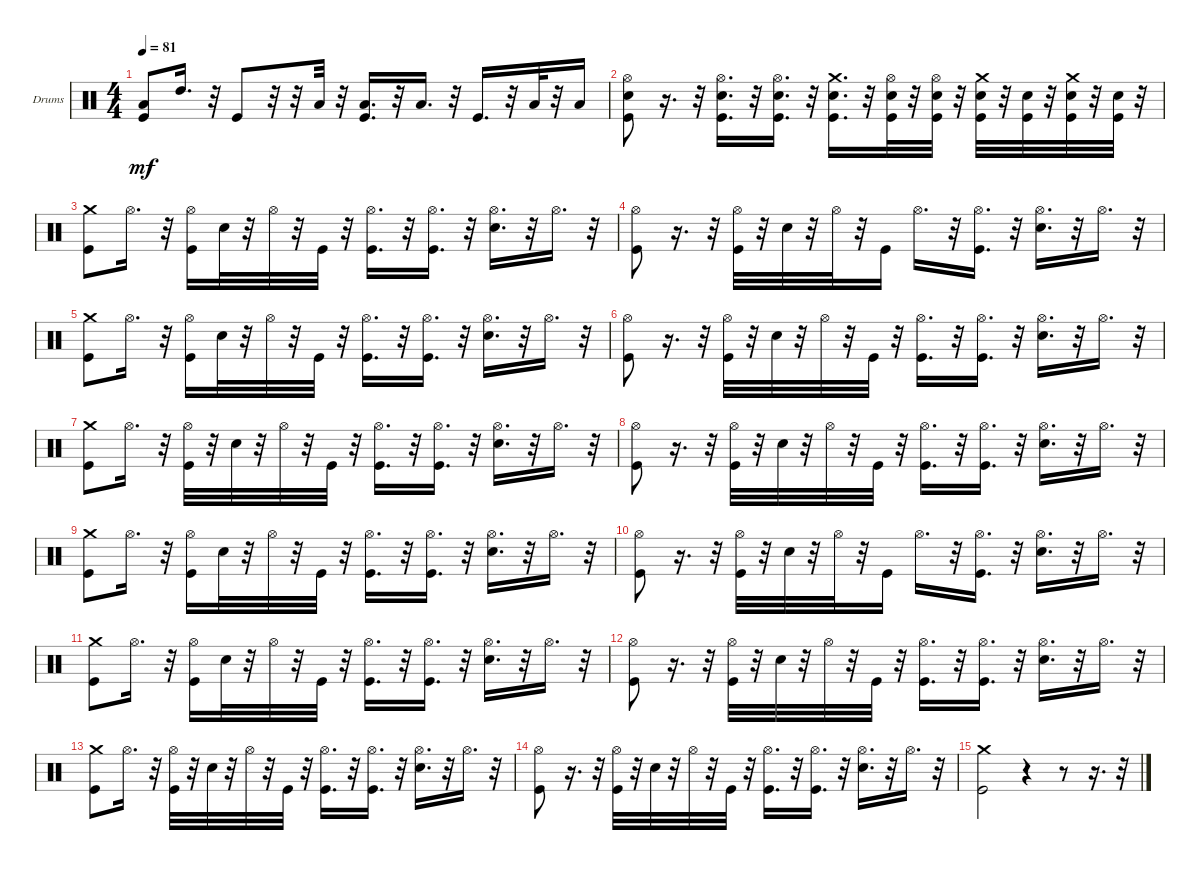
\bracketExtendMode groupsimilarinstruments
\firstSystemTrackNameOrientation horizontal
\otherSystemsTrackNameOrientation horizontal
\track ("DRUMS" "Drums") {instrument percussion}
\staff {score}
\articulation defaults
\ts (4 4)
\tempo 81
\clef neutral
\ks c
("Kick (hit)" "Low Tom (hit)").8{dy mf} "High Tom (hit)".16{d} r.32 "Kick (hit)".8 r.32 r.32 "Low Tom (hit)".32 r.32 ("Kick (hit)" "Low Tom (hit)").16{d} r.32 "Low Tom (hit)".16{d} r.32 "Kick (hit)".16{d} r.32 "Low Tom (hit)".32 r.32 "Low Tom (hit)".16 |
("Kick (hit)" "Snare (hit) 2" "Hi-Hat (open)").8 r.16{d} r.32 ("Kick (hit)" "Snare (hit) 2" "Hi-Hat (open)").16{d} r.32 ("Kick (hit)" "Snare (hit) 2" "Hi-Hat (open)").16{d} r.32 ("Kick (hit)" "Snare (hit) 2" "Crash medium (hit)").16{d} r.32 ("Kick (hit)" "Snare (hit) 2" "Hi-Hat (open)").32 r.32 ("Kick (hit)" "Snare (hit) 2" "Hi-Hat (open)").32 r.32 ("Kick (hit)" "Snare (hit) 2" "Crash medium (hit)").32 r.32 ("Kick (hit)" "Snare (hit) 2").32 r.32 ("Kick (hit)" "Snare (hit) 2" "Crash medium (hit)").32 r.32 ("Kick (hit)" "Snare (hit) 2").32 r.32 |
("Kick (hit)" "Crash medium (hit)").8 "Hi-Hat (open)".16{d} r.32 ("Kick (hit)" "Hi-Hat (open)").16 "Snare (hit) 2".32 r.32 "Hi-Hat (open)".32 r.32 "Kick (hit)".32 r.32 ("Kick (hit)" "Hi-Hat (open)").16{d} r.32 ("Kick (hit)" "Hi-Hat (open)").16{d} r.32 ("Snare (hit) 2" "Hi-Hat (open)").16{d} r.32 "Hi-Hat (open)".16{d} r.32 |
("Kick (hit)" "Hi-Hat (open)").8 r.16{d} r.32 ("Kick (hit)" "Hi-Hat (open)").32 r.32 "Snare (hit) 2".32 r.32 "Hi-Hat (open)".32 r.32 "Kick (hit)".16 "Hi-Hat (open)".16{d} r.32 ("Kick (hit)" "Hi-Hat (open)").16{d} r.32 ("Snare (hit) 2" "Hi-Hat (open)").16{d} r.32 "Hi-Hat (open)".16{d} r.32 |
("Kick (hit)" "Crash medium (hit)").8 "Hi-Hat (open)".16{d} r.32 ("Kick (hit)" "Hi-Hat (open)").16 "Snare (hit) 2".32 r.32 "Hi-Hat (open)".32 r.32 "Kick (hit)".32 r.32 ("Kick (hit)" "Hi-Hat (open)").16{d} r.32 ("Kick (hit)" "Hi-Hat (open)").16{d} r.32 ("Snare (hit) 2" "Hi-Hat (open)").16{d} r.32 "Hi-Hat (open)".16{d} r.32 |
("Kick (hit)" "Hi-Hat (open)").8 r.16{d} r.32 ("Kick (hit)" "Hi-Hat (open)").32 r.32 "Snare (hit) 2".32 r.32 "Hi-Hat (open)".32 r.32 "Kick (hit)".32 r.32 ("Kick (hit)" "Hi-Hat (open)").16{d} r.32 ("Kick (hit)" "Hi-Hat (open)").16{d} r.32 ("Snare (hit) 2" "Hi-Hat (open)").16{d} r.32 "Hi-Hat (open)".16{d} r.32 |
("Kick (hit)" "Crash medium (hit)").8 "Hi-Hat (open)".16{d} r.32 ("Kick (hit)" "Hi-Hat (open)").32 r.32 "Snare (hit) 2".32 r.32 "Hi-Hat (open)".32 r.32 "Kick (hit)".32 r.32 ("Kick (hit)" "Hi-Hat (open)").16{d} r.32 ("Kick (hit)" "Hi-Hat (open)").16{d} r.32 ("Snare (hit) 2" "Hi-Hat (open)").16{d} r.32 "Hi-Hat (open)".16{d} r.32 |
("Kick (hit)" "Hi-Hat (open)").8 r.16{d} r.32 ("Kick (hit)" "Hi-Hat (open)").32 r.32 "Snare (hit) 2".32 r.32 "Hi-Hat (open)".32 r.32 "Kick (hit)".32 r.32 ("Kick (hit)" "Hi-Hat (open)").16{d} r.32 ("Kick (hit)" "Hi-Hat (open)").16{d} r.32 ("Snare (hit) 2" "Hi-Hat (open)").16{d} r.32 "Hi-Hat (open)".16{d} r.32 |
("Kick (hit)" "Crash medium (hit)").8 "Hi-Hat (open)".16{d} r.32 ("Kick (hit)" "Hi-Hat (open)").16 "Snare (hit) 2".32 r.32 "Hi-Hat (open)".32 r.32 "Kick (hit)".32 r.32 ("Kick (hit)" "Hi-Hat (open)").16{d} r.32 ("Kick (hit)" "Hi-Hat (open)").16{d} r.32 ("Snare (hit) 2" "Hi-Hat (open)").16{d} r.32 "Hi-Hat (open)".16{d} r.32 |
("Kick (hit)" "Hi-Hat (open)").8 r.16{d} r.32 ("Kick (hit)" "Hi-Hat (open)").32 r.32 "Snare (hit) 2".32 r.32 "Hi-Hat (open)".32 r.32 "Kick (hit)".16 "Hi-Hat (open)".16{d} r.32 ("Kick (hit)" "Hi-Hat (open)").16{d} r.32 ("Snare (hit) 2" "Hi-Hat (open)").16{d} r.32 "Hi-Hat (open)".16{d} r.32 |
("Kick (hit)" "Crash medium (hit)").8 "Hi-Hat (open)".16{d} r.32 ("Kick (hit)" "Hi-Hat (open)").16 "Snare (hit) 2".32 r.32 "Hi-Hat (open)".32 r.32 "Kick (hit)".32 r.32 ("Kick (hit)" "Hi-Hat (open)").16{d} r.32 ("Kick (hit)" "Hi-Hat (open)").16{d} r.32 ("Snare (hit) 2" "Hi-Hat (open)").16{d} r.32 "Hi-Hat (open)".16{d} r.32 |
("Kick (hit)" "Hi-Hat (open)").8 r.16{d} r.32 ("Kick (hit)" "Hi-Hat (open)").32 r.32 "Snare (hit) 2".32 r.32 "Hi-Hat (open)".32 r.32 "Kick (hit)".32 r.32 ("Kick (hit)" "Hi-Hat (open)").16{d} r.32 ("Kick (hit)" "Hi-Hat (open)").16{d} r.32 ("Snare (hit) 2" "Hi-Hat (open)").16{d} r.32 "Hi-Hat (open)".16{d} r.32 |
("Kick (hit)" "Crash medium (hit)").8 "Hi-Hat (open)".16{d} r.32 ("Kick (hit)" "Hi-Hat (open)").32 r.32 "Snare (hit) 2".32 r.32 "Hi-Hat (open)".32 r.32 "Kick (hit)".32 r.32 ("Kick (hit)" "Hi-Hat (open)").16{d} r.32 ("Kick (hit)" "Hi-Hat (open)").16{d} r.32 ("Snare (hit) 2" "Hi-Hat (open)").16{d} r.32 "Hi-Hat (open)".16{d} r.32 |
("Kick (hit)" "Hi-Hat (open)").8 r.16{d} r.32 ("Kick (hit)" "Hi-Hat (open)").32 r.32 "Snare (hit) 2".32 r.32 "Hi-Hat (open)".32 r.32 "Kick (hit)".32 r.32 ("Kick (hit)" "Hi-Hat (open)").16{d} r.32 ("Kick (hit)" "Hi-Hat (open)").16{d} r.32 ("Snare (hit) 2" "Hi-Hat (open)").16{d} r.32 "Hi-Hat (open)".16{d} r.32 |
("Kick (hit)" "Crash medium (hit)").2 r.4 r.8 r.16{d} r.32
